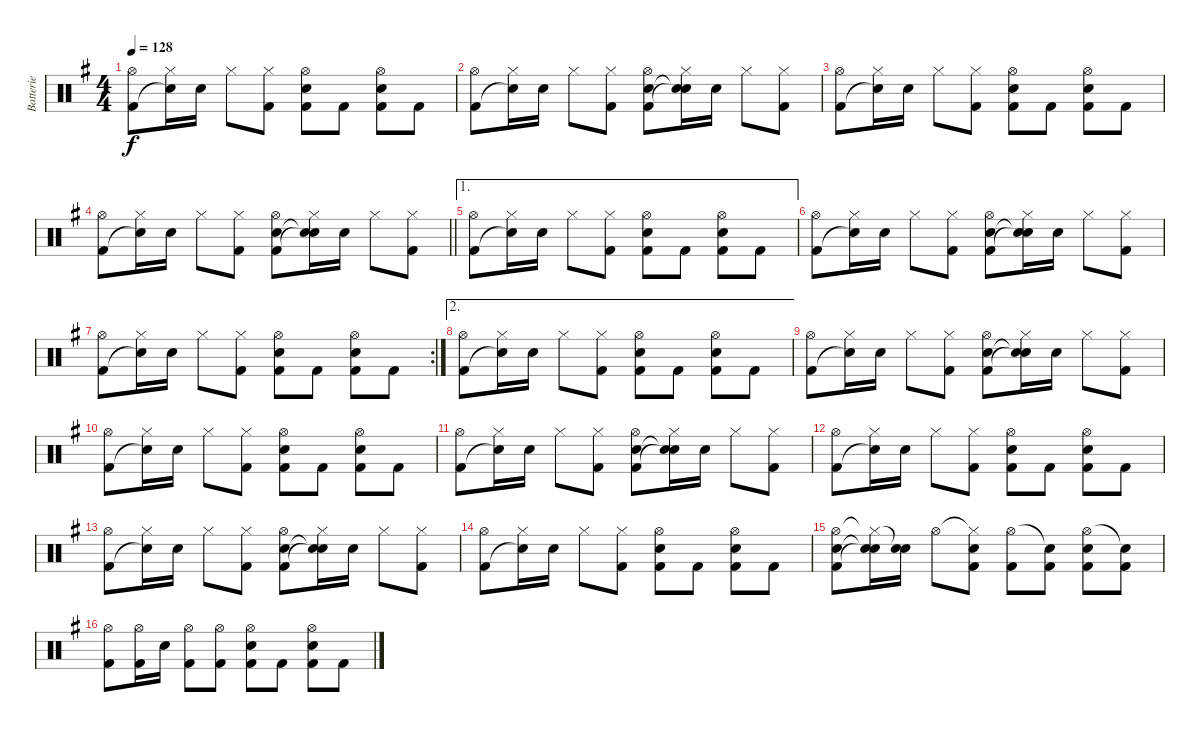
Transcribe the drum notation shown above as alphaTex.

\track ("Batterie" "Batterie") {instrument percussion}
\staff {score}
\articulation defaults
\ts (4 4)
\tempo 128
\clef neutral
\ks g
("Hi-Hat (open)" "Kick (hit) 2").8{dy f} ("Hi-Hat (closed)" "Snare (hit)"{t}).16 "Snare (hit) 2".16 "Hi-Hat (closed)".8 ("Hi-Hat (closed)" "Kick (hit) 2").8 ("Hi-Hat (open)" "Snare (hit) 2" "Kick (hit) 2").8 "Kick (hit) 2".8 ("Hi-Hat (open)" "Snare (hit) 2" "Kick (hit) 2").8 "Kick (hit) 2".8 |
("Hi-Hat (open)" "Kick (hit) 2").8 ("Hi-Hat (closed)" "Snare (hit)"{t}).16 "Snare (hit) 2".16 "Hi-Hat (closed)".8 ("Hi-Hat (closed)" "Kick (hit) 2").8 ("Hi-Hat (open)" "Snare (hit) 2" "Kick (hit) 2").8 ("Hi-Hat (closed)" "Snare (hit)"{t} "Snare (hit)"{t}).16 "Snare (hit) 2".16 "Hi-Hat (closed)".8 ("Hi-Hat (closed)" "Kick (hit) 2").8 |
("Hi-Hat (open)" "Kick (hit) 2").8 ("Hi-Hat (closed)" "Snare (hit)"{t}).16 "Snare (hit) 2".16 "Hi-Hat (closed)".8 ("Hi-Hat (closed)" "Kick (hit) 2").8 ("Hi-Hat (open)" "Snare (hit) 2" "Kick (hit) 2").8 "Kick (hit) 2".8 ("Hi-Hat (open)" "Snare (hit) 2" "Kick (hit) 2").8 "Kick (hit) 2".8 |
\barLineRight lightlight
("Hi-Hat (open)" "Kick (hit) 2").8 ("Hi-Hat (closed)" "Snare (hit)"{t}).16 "Snare (hit) 2".16 "Hi-Hat (closed)".8 ("Hi-Hat (closed)" "Kick (hit) 2").8 ("Hi-Hat (open)" "Snare (hit) 2" "Kick (hit) 2").8 ("Hi-Hat (closed)" "Snare (hit)"{t} "Snare (hit)"{t}).16 "Snare (hit) 2".16 "Hi-Hat (closed)".8 ("Hi-Hat (closed)" "Kick (hit) 2").8 |
\ae 1
("Hi-Hat (open)" "Kick (hit) 2").8 ("Hi-Hat (closed)" "Snare (hit)"{t}).16 "Snare (hit) 2".16 "Hi-Hat (closed)".8 ("Hi-Hat (closed)" "Kick (hit) 2").8 ("Hi-Hat (open)" "Snare (hit) 2" "Kick (hit) 2").8 "Kick (hit) 2".8 ("Hi-Hat (open)" "Snare (hit) 2" "Kick (hit) 2").8 "Kick (hit) 2".8 |
("Hi-Hat (open)" "Kick (hit) 2").8 ("Hi-Hat (closed)" "Snare (hit)"{t}).16 "Snare (hit) 2".16 "Hi-Hat (closed)".8 ("Hi-Hat (closed)" "Kick (hit) 2").8 ("Hi-Hat (open)" "Snare (hit) 2" "Kick (hit) 2").8 ("Hi-Hat (closed)" "Snare (hit)"{t} "Snare (hit)"{t}).16 "Snare (hit) 2".16 "Hi-Hat (closed)".8 ("Hi-Hat (closed)" "Kick (hit) 2").8 |
\rc 2
("Hi-Hat (open)" "Kick (hit) 2").8 ("Hi-Hat (closed)" "Snare (hit)"{t}).16 "Snare (hit) 2".16 "Hi-Hat (closed)".8 ("Hi-Hat (closed)" "Kick (hit) 2").8 ("Hi-Hat (open)" "Snare (hit) 2" "Kick (hit) 2").8 "Kick (hit) 2".8 ("Hi-Hat (open)" "Snare (hit) 2" "Kick (hit) 2").8 "Kick (hit) 2".8 |
\ae 2
("Hi-Hat (open)" "Kick (hit) 2").8 ("Hi-Hat (closed)" "Snare (hit)"{t}).16 "Snare (hit) 2".16 "Hi-Hat (closed)".8 ("Hi-Hat (closed)" "Kick (hit) 2").8 ("Hi-Hat (open)" "Snare (hit) 2" "Kick (hit) 2").8 "Kick (hit) 2".8 ("Hi-Hat (open)" "Snare (hit) 2" "Kick (hit) 2").8 "Kick (hit) 2".8 |
("Hi-Hat (open)" "Kick (hit) 2").8 ("Hi-Hat (closed)" "Snare (hit)"{t}).16 "Snare (hit) 2".16 "Hi-Hat (closed)".8 ("Hi-Hat (closed)" "Kick (hit) 2").8 ("Hi-Hat (open)" "Snare (hit) 2" "Kick (hit) 2").8 ("Hi-Hat (closed)" "Snare (hit)"{t} "Snare (hit)"{t}).16 "Snare (hit) 2".16 "Hi-Hat (closed)".8 ("Hi-Hat (closed)" "Kick (hit) 2").8 |
("Hi-Hat (open)" "Kick (hit) 2").8 ("Hi-Hat (closed)" "Snare (hit)"{t}).16 "Snare (hit) 2".16 "Hi-Hat (closed)".8 ("Hi-Hat (closed)" "Kick (hit) 2").8 ("Hi-Hat (open)" "Snare (hit) 2" "Kick (hit) 2").8 "Kick (hit) 2".8 ("Hi-Hat (open)" "Snare (hit) 2" "Kick (hit) 2").8 "Kick (hit) 2".8 |
("Hi-Hat (open)" "Kick (hit) 2").8 ("Hi-Hat (closed)" "Snare (hit)"{t}).16 "Snare (hit) 2".16 "Hi-Hat (closed)".8 ("Hi-Hat (closed)" "Kick (hit) 2").8 ("Hi-Hat (open)" "Snare (hit) 2" "Kick (hit) 2").8 ("Hi-Hat (closed)" "Snare (hit)"{t} "Snare (hit)"{t}).16 "Snare (hit) 2".16 "Hi-Hat (closed)".8 ("Hi-Hat (closed)" "Kick (hit) 2").8 |
("Hi-Hat (open)" "Kick (hit) 2").8 ("Hi-Hat (closed)" "Snare (hit)"{t}).16 "Snare (hit) 2".16 "Hi-Hat (closed)".8 ("Hi-Hat (closed)" "Kick (hit) 2").8 ("Hi-Hat (open)" "Snare (hit) 2" "Kick (hit) 2").8 "Kick (hit) 2".8 ("Hi-Hat (open)" "Snare (hit) 2" "Kick (hit) 2").8 "Kick (hit) 2".8 |
("Hi-Hat (open)" "Kick (hit) 2").8 ("Hi-Hat (closed)" "Snare (hit)"{t}).16 "Snare (hit) 2".16 "Hi-Hat (closed)".8 ("Hi-Hat (closed)" "Kick (hit) 2").8 ("Hi-Hat (open)" "Snare (hit) 2" "Kick (hit) 2").8 ("Hi-Hat (closed)" "Snare (hit)"{t} "Snare (hit)"{t}).16 "Snare (hit) 2".16 "Hi-Hat (closed)".8 ("Hi-Hat (closed)" "Kick (hit) 2").8 |
("Hi-Hat (open)" "Kick (hit) 2").8 ("Hi-Hat (closed)" "Snare (hit)"{t}).16 "Snare (hit) 2".16 "Hi-Hat (closed)".8 ("Hi-Hat (closed)" "Kick (hit) 2").8 ("Hi-Hat (open)" "Snare (hit) 2" "Kick (hit) 2").8 "Kick (hit) 2".8 ("Hi-Hat (open)" "Snare (hit) 2" "Kick (hit) 2").8 "Kick (hit) 2".8 |
("Hi-Hat (open)" "Snare (hit) 2" "Kick (hit) 2").8 ("Hi-Hat (closed)"{t} "Snare (hit)"{t} "Snare (hit)"{t}).16 ("Snare (hit)"{t} "Snare (hit) 2").16 "Hi-Hat (open)".8 ("Hi-Hat (closed)"{t} "Snare (hit) 2" "Kick (hit) 2").8 ("Hi-Hat (open)" "Kick (hit) 2").8 ("Snare (hit)"{t} "Kick (hit) 2").8 ("Hi-Hat (open)" "Snare (hit) 2" "Kick (hit) 2").8 ("Snare (hit)"{t} "Kick (hit) 2").8 |
("Hi-Hat (open)" "Kick (hit) 2").8 ("Hi-Hat (open)" "Kick (hit) 2").16 "Snare (hit) 2".16 ("Hi-Hat (open)" "Kick (hit) 2").8 ("Hi-Hat (open)" "Kick (hit) 2").8 ("Hi-Hat (open)" "Snare (hit) 2" "Kick (hit) 2").8 "Kick (hit) 2".8 ("Hi-Hat (open)" "Snare (hit) 2" "Kick (hit) 2").8 "Kick (hit) 2".8
